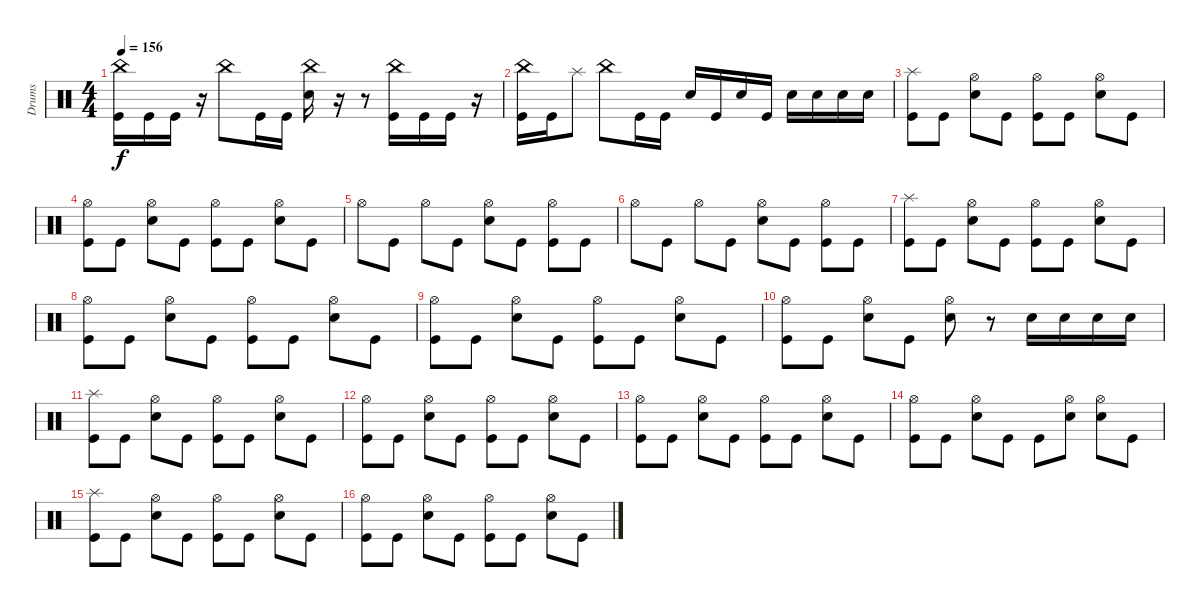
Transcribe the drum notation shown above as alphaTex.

\track ("Drums" "Drums") {instrument percussion}
\staff {score}
\articulation defaults
\ts (4 4)
\tempo 156
\clef neutral
\ks c
("China (hit)" "Kick (hit)").16{dy f} "Kick (hit)".16 "Kick (hit)".16 r.16 "China (hit)".8 "Kick (hit)".16 "Kick (hit)".16 ("Snare (hit) 2" "China (hit)").16 r.16 r.8 ("Kick (hit)" "China (hit)").16 "Kick (hit)".16 "Kick (hit)".16 r.16 |
("Kick (hit)" "China (hit)").16 "Kick (hit)".16 "Splash (hit)".8 "China (hit)".8 "Kick (hit)".16 "Kick (hit)".16 "Snare (hit) 2".16 "Kick (hit)".16 "Snare (hit) 2".16 "Kick (hit)".16 "Snare (hit) 2".16 "Snare (hit) 2".16 "Snare (hit) 2".16 "Snare (hit) 2".16 |
("Kick (hit)" "Splash (hit)").8 "Kick (hit)".8 ("Snare (hit) 2" "Hi-Hat (open)").8 "Kick (hit)".8 ("Kick (hit)" "Hi-Hat (open)").8 "Kick (hit)".8 ("Snare (hit) 2" "Hi-Hat (open)").8 "Kick (hit)".8 |
("Kick (hit)" "Hi-Hat (open)").8 "Kick (hit)".8 ("Snare (hit) 2" "Hi-Hat (open)").8 "Kick (hit)".8 ("Kick (hit)" "Hi-Hat (open)").8 "Kick (hit)".8 ("Snare (hit) 2" "Hi-Hat (open)").8 "Kick (hit)".8 |
"Hi-Hat (open)".8 "Kick (hit)".8 "Hi-Hat (open)".8 "Kick (hit)".8 ("Snare (hit) 2" "Hi-Hat (open)").8 "Kick (hit)".8 ("Kick (hit)" "Hi-Hat (open)").8 "Kick (hit)".8 |
"Hi-Hat (open)".8 "Kick (hit)".8 "Hi-Hat (open)".8 "Kick (hit)".8 ("Snare (hit) 2" "Hi-Hat (open)").8 "Kick (hit)".8 ("Kick (hit)" "Hi-Hat (open)").8 "Kick (hit)".8 |
("Kick (hit)" "Splash (hit)").8 "Kick (hit)".8 ("Snare (hit) 2" "Hi-Hat (open)").8 "Kick (hit)".8 ("Kick (hit)" "Hi-Hat (open)").8 "Kick (hit)".8 ("Snare (hit) 2" "Hi-Hat (open)").8 "Kick (hit)".8 |
("Kick (hit)" "Hi-Hat (open)").8 "Kick (hit)".8 ("Snare (hit) 2" "Hi-Hat (open)").8 "Kick (hit)".8 ("Kick (hit)" "Hi-Hat (open)").8 "Kick (hit)".8 ("Snare (hit) 2" "Hi-Hat (open)").8 "Kick (hit)".8 |
("Kick (hit)" "Hi-Hat (open)").8 "Kick (hit)".8 ("Snare (hit) 2" "Hi-Hat (open)").8 "Kick (hit)".8 ("Kick (hit)" "Hi-Hat (open)").8 "Kick (hit)".8 ("Snare (hit) 2" "Hi-Hat (open)").8 "Kick (hit)".8 |
("Kick (hit)" "Hi-Hat (open)").8 "Kick (hit)".8 ("Snare (hit) 2" "Hi-Hat (open)").8 "Kick (hit)".8 ("Snare (hit) 2" "Hi-Hat (open)").8 r.8 "Snare (hit) 2".16 "Snare (hit) 2".16 "Snare (hit) 2".16 "Snare (hit) 2".16 |
("Kick (hit)" "Splash (hit)").8 "Kick (hit)".8 ("Snare (hit) 2" "Hi-Hat (open)").8 "Kick (hit)".8 ("Kick (hit)" "Hi-Hat (open)").8 "Kick (hit)".8 ("Snare (hit) 2" "Hi-Hat (open)").8 "Kick (hit)".8 |
("Kick (hit)" "Hi-Hat (open)").8 "Kick (hit)".8 ("Snare (hit) 2" "Hi-Hat (open)").8 "Kick (hit)".8 ("Kick (hit)" "Hi-Hat (open)").8 "Kick (hit)".8 ("Snare (hit) 2" "Hi-Hat (open)").8 "Kick (hit)".8 |
("Kick (hit)" "Hi-Hat (open)").8 "Kick (hit)".8 ("Snare (hit) 2" "Hi-Hat (open)").8 "Kick (hit)".8 ("Kick (hit)" "Hi-Hat (open)").8 "Kick (hit)".8 ("Snare (hit) 2" "Hi-Hat (open)").8 "Kick (hit)".8 |
("Kick (hit)" "Hi-Hat (open)").8 "Kick (hit)".8 ("Snare (hit) 2" "Hi-Hat (open)").8 "Kick (hit)".8 "Kick (hit)".8 ("Snare (hit) 2" "Hi-Hat (open)").8 ("Snare (hit) 2" "Hi-Hat (open)").8 "Kick (hit)".8 |
("Kick (hit)" "Splash (hit)").8 "Kick (hit)".8 ("Snare (hit) 2" "Hi-Hat (open)").8 "Kick (hit)".8 ("Kick (hit)" "Hi-Hat (open)").8 "Kick (hit)".8 ("Snare (hit) 2" "Hi-Hat (open)").8 "Kick (hit)".8 |
("Kick (hit)" "Hi-Hat (open)").8 "Kick (hit)".8 ("Snare (hit) 2" "Hi-Hat (open)").8 "Kick (hit)".8 ("Kick (hit)" "Hi-Hat (open)").8 "Kick (hit)".8 ("Snare (hit) 2" "Hi-Hat (open)").8 "Kick (hit)".8
